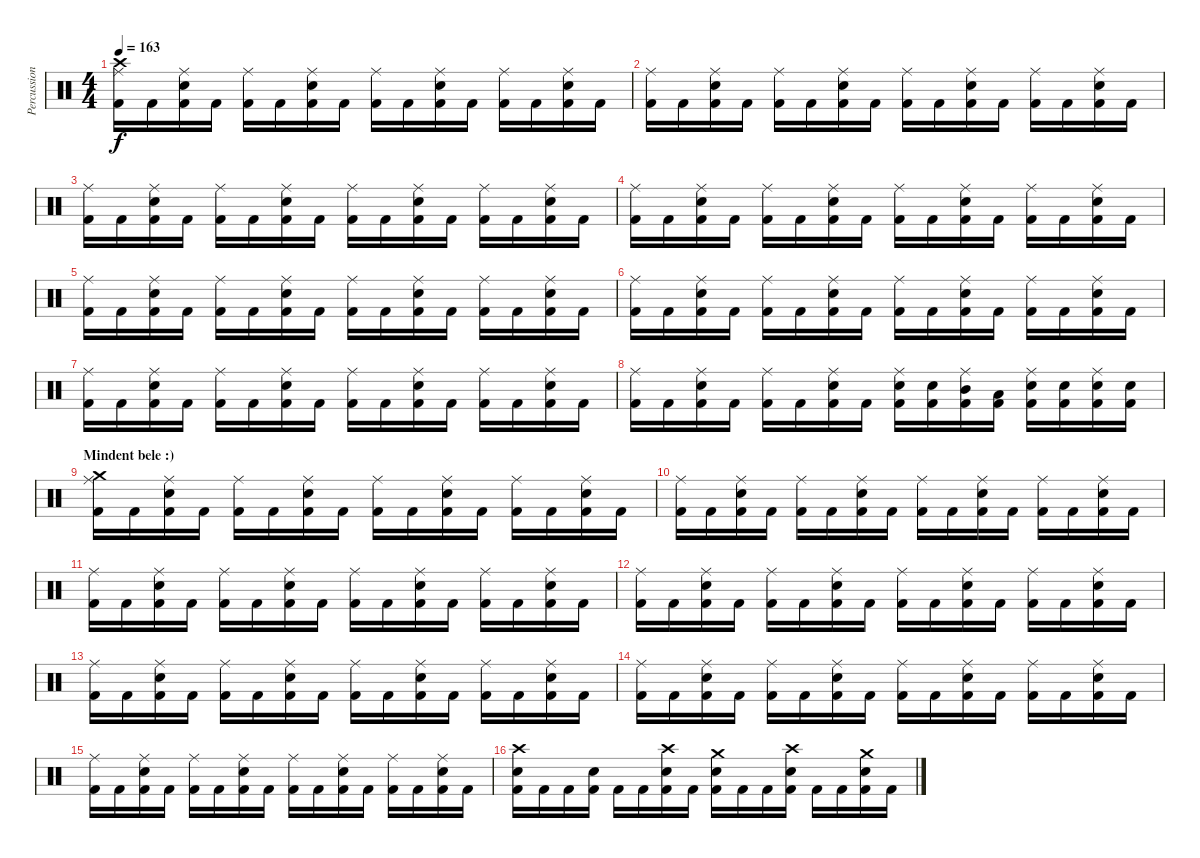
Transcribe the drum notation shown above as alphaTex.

\track ("Percussion" "Percussion") {instrument percussion}
\staff {score}
\articulation defaults
\ts (4 4)
\tempo 163
\clef neutral
\ks c
("Ride (middle)" "Crash high (hit)" "Kick (hit) 2").16{dy f} "Kick (hit) 2".16 ("Ride (middle)" "Kick (hit) 2" "Electric Snare (hit)").16 "Kick (hit) 2".16 ("Ride (middle)" "Kick (hit) 2").16 "Kick (hit) 2".16 ("Ride (middle)" "Kick (hit) 2" "Electric Snare (hit)").16 "Kick (hit) 2".16 ("Ride (middle)" "Kick (hit) 2").16 "Kick (hit) 2".16 ("Ride (middle)" "Kick (hit) 2" "Electric Snare (hit)").16 "Kick (hit) 2".16 ("Ride (middle)" "Kick (hit) 2").16 "Kick (hit) 2".16 ("Ride (middle)" "Kick (hit) 2" "Electric Snare (hit)").16 "Kick (hit) 2".16 |
("Ride (middle)" "Kick (hit) 2").16 "Kick (hit) 2".16 ("Ride (middle)" "Kick (hit) 2" "Electric Snare (hit)").16 "Kick (hit) 2".16 ("Ride (middle)" "Kick (hit) 2").16 "Kick (hit) 2".16 ("Ride (middle)" "Kick (hit) 2" "Electric Snare (hit)").16 "Kick (hit) 2".16 ("Ride (middle)" "Kick (hit) 2").16 "Kick (hit) 2".16 ("Ride (middle)" "Kick (hit) 2" "Electric Snare (hit)").16 "Kick (hit) 2".16 ("Ride (middle)" "Kick (hit) 2").16 "Kick (hit) 2".16 ("Ride (middle)" "Kick (hit) 2" "Electric Snare (hit)").16 "Kick (hit) 2".16 |
("Ride (middle)" "Kick (hit) 2").16 "Kick (hit) 2".16 ("Ride (middle)" "Kick (hit) 2" "Electric Snare (hit)").16 "Kick (hit) 2".16 ("Ride (middle)" "Kick (hit) 2").16 "Kick (hit) 2".16 ("Ride (middle)" "Kick (hit) 2" "Electric Snare (hit)").16 "Kick (hit) 2".16 ("Ride (middle)" "Kick (hit) 2").16 "Kick (hit) 2".16 ("Ride (middle)" "Kick (hit) 2" "Electric Snare (hit)").16 "Kick (hit) 2".16 ("Ride (middle)" "Kick (hit) 2").16 "Kick (hit) 2".16 ("Ride (middle)" "Kick (hit) 2" "Electric Snare (hit)").16 "Kick (hit) 2".16 |
("Ride (middle)" "Kick (hit) 2").16 "Kick (hit) 2".16 ("Ride (middle)" "Kick (hit) 2" "Electric Snare (hit)").16 "Kick (hit) 2".16 ("Ride (middle)" "Kick (hit) 2").16 "Kick (hit) 2".16 ("Ride (middle)" "Kick (hit) 2" "Electric Snare (hit)").16 "Kick (hit) 2".16 ("Ride (middle)" "Kick (hit) 2").16 "Kick (hit) 2".16 ("Ride (middle)" "Kick (hit) 2" "Electric Snare (hit)").16 "Kick (hit) 2".16 ("Ride (middle)" "Kick (hit) 2").16 "Kick (hit) 2".16 ("Ride (middle)" "Kick (hit) 2" "Electric Snare (hit)").16 "Kick (hit) 2".16 |
("Ride (middle)" "Kick (hit) 2").16 "Kick (hit) 2".16 ("Ride (middle)" "Kick (hit) 2" "Electric Snare (hit)").16 "Kick (hit) 2".16 ("Ride (middle)" "Kick (hit) 2").16 "Kick (hit) 2".16 ("Ride (middle)" "Kick (hit) 2" "Electric Snare (hit)").16 "Kick (hit) 2".16 ("Ride (middle)" "Kick (hit) 2").16 "Kick (hit) 2".16 ("Ride (middle)" "Kick (hit) 2" "Electric Snare (hit)").16 "Kick (hit) 2".16 ("Ride (middle)" "Kick (hit) 2").16 "Kick (hit) 2".16 ("Ride (middle)" "Kick (hit) 2" "Electric Snare (hit)").16 "Kick (hit) 2".16 |
("Ride (middle)" "Kick (hit) 2").16 "Kick (hit) 2".16 ("Ride (middle)" "Kick (hit) 2" "Electric Snare (hit)").16 "Kick (hit) 2".16 ("Ride (middle)" "Kick (hit) 2").16 "Kick (hit) 2".16 ("Ride (middle)" "Kick (hit) 2" "Electric Snare (hit)").16 "Kick (hit) 2".16 ("Ride (middle)" "Kick (hit) 2").16 "Kick (hit) 2".16 ("Ride (middle)" "Kick (hit) 2" "Electric Snare (hit)").16 "Kick (hit) 2".16 ("Ride (middle)" "Kick (hit) 2").16 "Kick (hit) 2".16 ("Ride (middle)" "Kick (hit) 2" "Electric Snare (hit)").16 "Kick (hit) 2".16 |
("Ride (middle)" "Kick (hit) 2").16 "Kick (hit) 2".16 ("Ride (middle)" "Kick (hit) 2" "Electric Snare (hit)").16 "Kick (hit) 2".16 ("Ride (middle)" "Kick (hit) 2").16 "Kick (hit) 2".16 ("Ride (middle)" "Kick (hit) 2" "Electric Snare (hit)").16 "Kick (hit) 2".16 ("Ride (middle)" "Kick (hit) 2").16 "Kick (hit) 2".16 ("Ride (middle)" "Kick (hit) 2" "Electric Snare (hit)").16 "Kick (hit) 2".16 ("Ride (middle)" "Kick (hit) 2").16 "Kick (hit) 2".16 ("Ride (middle)" "Kick (hit) 2" "Electric Snare (hit)").16 "Kick (hit) 2".16 |
("Ride (middle)" "Kick (hit) 2").16 "Kick (hit) 2".16 ("Ride (middle)" "Kick (hit) 2" "Electric Snare (hit)").16 "Kick (hit) 2".16 ("Ride (middle)" "Kick (hit) 2").16 "Kick (hit) 2".16 ("Ride (middle)" "Kick (hit) 2" "Electric Snare (hit)").16 "Kick (hit) 2".16 ("Ride (middle)" "Kick (hit) 2" "Electric Snare (hit)").16 ("Kick (hit) 2" "Electric Snare (hit)").16 ("Ride (middle)" "Kick (hit) 2" "Mid Tom (hit)").16 ("Kick (hit) 2" "Low Tom (hit)").16 ("Ride (middle)" "Kick (hit) 2" "Electric Snare (hit)").16 ("Kick (hit) 2" "Electric Snare (hit)").16 ("Ride (middle)" "Kick (hit) 2" "Electric Snare (hit)").16 ("Kick (hit) 2" "Electric Snare (hit)").16 |
\section ("" "Mindent bele :)")
("Ride (middle)" "Crash medium (hit)" "Kick (hit) 2").16 "Kick (hit) 2".16 ("Ride (middle)" "Kick (hit) 2" "Electric Snare (hit)").16 "Kick (hit) 2".16 ("Ride (middle)" "Kick (hit) 2").16 "Kick (hit) 2".16 ("Ride (middle)" "Kick (hit) 2" "Electric Snare (hit)").16 "Kick (hit) 2".16 ("Ride (middle)" "Kick (hit) 2").16 "Kick (hit) 2".16 ("Ride (middle)" "Kick (hit) 2" "Electric Snare (hit)").16 "Kick (hit) 2".16 ("Ride (middle)" "Kick (hit) 2").16 "Kick (hit) 2".16 ("Ride (middle)" "Kick (hit) 2" "Electric Snare (hit)").16 "Kick (hit) 2".16 |
("Ride (middle)" "Kick (hit) 2").16 "Kick (hit) 2".16 ("Ride (middle)" "Kick (hit) 2" "Electric Snare (hit)").16 "Kick (hit) 2".16 ("Ride (middle)" "Kick (hit) 2").16 "Kick (hit) 2".16 ("Ride (middle)" "Kick (hit) 2" "Electric Snare (hit)").16 "Kick (hit) 2".16 ("Ride (middle)" "Kick (hit) 2").16 "Kick (hit) 2".16 ("Ride (middle)" "Kick (hit) 2" "Electric Snare (hit)").16 "Kick (hit) 2".16 ("Ride (middle)" "Kick (hit) 2").16 "Kick (hit) 2".16 ("Ride (middle)" "Kick (hit) 2" "Electric Snare (hit)").16 "Kick (hit) 2".16 |
("Ride (middle)" "Kick (hit) 2").16 "Kick (hit) 2".16 ("Ride (middle)" "Kick (hit) 2" "Electric Snare (hit)").16 "Kick (hit) 2".16 ("Ride (middle)" "Kick (hit) 2").16 "Kick (hit) 2".16 ("Ride (middle)" "Kick (hit) 2" "Electric Snare (hit)").16 "Kick (hit) 2".16 ("Ride (middle)" "Kick (hit) 2").16 "Kick (hit) 2".16 ("Ride (middle)" "Kick (hit) 2" "Electric Snare (hit)").16 "Kick (hit) 2".16 ("Ride (middle)" "Kick (hit) 2").16 "Kick (hit) 2".16 ("Ride (middle)" "Kick (hit) 2" "Electric Snare (hit)").16 "Kick (hit) 2".16 |
("Ride (middle)" "Kick (hit) 2").16 "Kick (hit) 2".16 ("Ride (middle)" "Kick (hit) 2" "Electric Snare (hit)").16 "Kick (hit) 2".16 ("Ride (middle)" "Kick (hit) 2").16 "Kick (hit) 2".16 ("Ride (middle)" "Kick (hit) 2" "Electric Snare (hit)").16 "Kick (hit) 2".16 ("Ride (middle)" "Kick (hit) 2").16 "Kick (hit) 2".16 ("Ride (middle)" "Kick (hit) 2" "Electric Snare (hit)").16 "Kick (hit) 2".16 ("Ride (middle)" "Kick (hit) 2").16 "Kick (hit) 2".16 ("Ride (middle)" "Kick (hit) 2" "Electric Snare (hit)").16 "Kick (hit) 2".16 |
("Ride (middle)" "Kick (hit) 2").16 "Kick (hit) 2".16 ("Ride (middle)" "Kick (hit) 2" "Electric Snare (hit)").16 "Kick (hit) 2".16 ("Ride (middle)" "Kick (hit) 2").16 "Kick (hit) 2".16 ("Ride (middle)" "Kick (hit) 2" "Electric Snare (hit)").16 "Kick (hit) 2".16 ("Ride (middle)" "Kick (hit) 2").16 "Kick (hit) 2".16 ("Ride (middle)" "Kick (hit) 2" "Electric Snare (hit)").16 "Kick (hit) 2".16 ("Ride (middle)" "Kick (hit) 2").16 "Kick (hit) 2".16 ("Ride (middle)" "Kick (hit) 2" "Electric Snare (hit)").16 "Kick (hit) 2".16 |
("Ride (middle)" "Kick (hit) 2").16 "Kick (hit) 2".16 ("Ride (middle)" "Kick (hit) 2" "Electric Snare (hit)").16 "Kick (hit) 2".16 ("Ride (middle)" "Kick (hit) 2").16 "Kick (hit) 2".16 ("Ride (middle)" "Kick (hit) 2" "Electric Snare (hit)").16 "Kick (hit) 2".16 ("Ride (middle)" "Kick (hit) 2").16 "Kick (hit) 2".16 ("Ride (middle)" "Kick (hit) 2" "Electric Snare (hit)").16 "Kick (hit) 2".16 ("Ride (middle)" "Kick (hit) 2").16 "Kick (hit) 2".16 ("Ride (middle)" "Kick (hit) 2" "Electric Snare (hit)").16 "Kick (hit) 2".16 |
("Ride (middle)" "Kick (hit) 2").16 "Kick (hit) 2".16 ("Ride (middle)" "Kick (hit) 2" "Electric Snare (hit)").16 "Kick (hit) 2".16 ("Ride (middle)" "Kick (hit) 2").16 "Kick (hit) 2".16 ("Ride (middle)" "Kick (hit) 2" "Electric Snare (hit)").16 "Kick (hit) 2".16 ("Ride (middle)" "Kick (hit) 2").16 "Kick (hit) 2".16 ("Ride (middle)" "Kick (hit) 2" "Electric Snare (hit)").16 "Kick (hit) 2".16 ("Ride (middle)" "Kick (hit) 2").16 "Kick (hit) 2".16 ("Ride (middle)" "Kick (hit) 2" "Electric Snare (hit)").16 "Kick (hit) 2".16 |
("Crash high (hit)" "Kick (hit) 2" "Electric Snare (hit)").16 "Kick (hit) 2".16 "Kick (hit) 2".16 ("Kick (hit) 2" "Electric Snare (hit)").16 "Kick (hit) 2".16 "Kick (hit) 2".16 ("Crash high (hit)" "Kick (hit) 2" "Electric Snare (hit)").16 "Kick (hit) 2".16 ("Crash medium (hit)" "Kick (hit) 2" "Electric Snare (hit)").16 "Kick (hit) 2".16 "Kick (hit) 2".16 ("Crash high (hit)" "Kick (hit) 2" "Electric Snare (hit)").16 "Kick (hit) 2".16 "Kick (hit) 2".16 ("Crash medium (hit)" "Kick (hit) 2" "Electric Snare (hit)").16 "Kick (hit) 2".16
